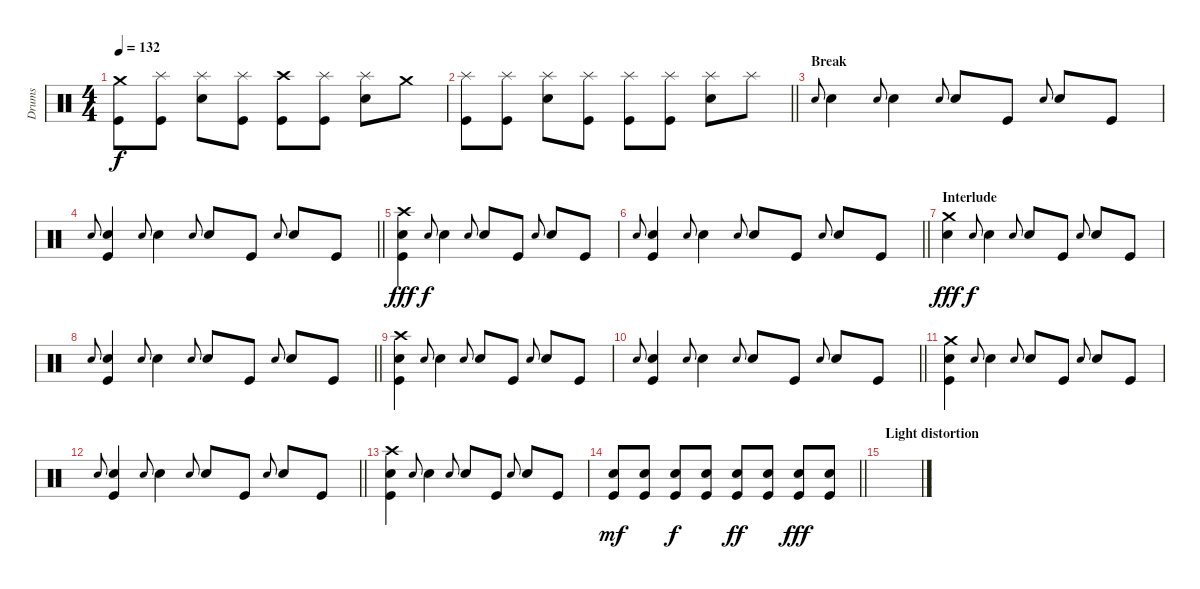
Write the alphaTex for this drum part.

\track ("Drums" "Drums") {instrument percussion}
\staff {score}
\articulation defaults
\ts (4 4)
\tempo 132
\clef neutral
\ks c
("Crash medium (hit)" "Kick (hit)").8{dy f} ("Splash (hit)" "Kick (hit)").8 ("Splash (hit)" "Snare (hit) 2").8 ("Splash (hit)" "Kick (hit)").8 ("Crash high (hit)" "Kick (hit)").8 ("Splash (hit)" "Kick (hit)").8 ("Splash (hit)" "Snare (hit) 2").8 "Crash medium (hit)".8 |
\barLineRight lightlight
("Splash (hit)" "Kick (hit)").8 ("Splash (hit)" "Kick (hit)").8 ("Splash (hit)" "Snare (hit) 2").8 ("Splash (hit)" "Kick (hit)").8 ("Splash (hit)" "Kick (hit)").8 ("Splash (hit)" "Kick (hit)").8 ("Splash (hit)" "Snare (hit) 2").8 "Splash (hit)".8 |
\section ("" "Break")
"Snare (hit) 2".8{gr onbeat} "Snare (hit) 2".4 "Snare (hit) 2".8{gr onbeat} "Snare (hit) 2".4 "Snare (hit) 2".8{gr onbeat} "Snare (hit) 2".8 "Kick (hit)".8 "Snare (hit) 2".8{gr onbeat} "Snare (hit) 2".8 "Kick (hit)".8 |
\barLineRight lightlight "Snare (hit) 2".8{gr onbeat}
("Snare (hit) 2" "Kick (hit)").4 "Snare (hit) 2".8{gr onbeat} "Snare (hit) 2".4 "Snare (hit) 2".8{gr onbeat} "Snare (hit) 2".8 "Kick (hit)".8 "Snare (hit) 2".8{gr onbeat} "Snare (hit) 2".8 "Kick (hit)".8 |
("Crash high (hit)" "Snare (hit) 2" "Kick (hit)").4{dy fff} "Snare (hit) 2".8{gr onbeat dy f} "Snare (hit) 2".4 "Snare (hit) 2".8{gr onbeat} "Snare (hit) 2".8 "Kick (hit)".8 "Snare (hit) 2".8{gr onbeat} "Snare (hit) 2".8 "Kick (hit)".8 |
\barLineRight lightlight "Snare (hit) 2".8{gr onbeat}
("Snare (hit) 2" "Kick (hit)").4 "Snare (hit) 2".8{gr onbeat} "Snare (hit) 2".4 "Snare (hit) 2".8{gr onbeat} "Snare (hit) 2".8 "Kick (hit)".8 "Snare (hit) 2".8{gr onbeat} "Snare (hit) 2".8 "Kick (hit)".8 |
\section ("" "Interlude")
("Crash medium (hit)" "Snare (hit) 2").4{dy fff} "Snare (hit) 2".8{gr onbeat dy f} "Snare (hit) 2".4 "Snare (hit) 2".8{gr onbeat} "Snare (hit) 2".8 "Kick (hit)".8 "Snare (hit) 2".8{gr onbeat} "Snare (hit) 2".8 "Kick (hit)".8 |
\barLineRight lightlight "Snare (hit) 2".8{gr onbeat}
("Snare (hit) 2" "Kick (hit)").4 "Snare (hit) 2".8{gr onbeat} "Snare (hit) 2".4 "Snare (hit) 2".8{gr onbeat} "Snare (hit) 2".8 "Kick (hit)".8 "Snare (hit) 2".8{gr onbeat} "Snare (hit) 2".8 "Kick (hit)".8 |
("Crash high (hit)" "Snare (hit) 2" "Kick (hit)").4 "Snare (hit) 2".8{gr onbeat} "Snare (hit) 2".4 "Snare (hit) 2".8{gr onbeat} "Snare (hit) 2".8 "Kick (hit)".8 "Snare (hit) 2".8{gr onbeat} "Snare (hit) 2".8 "Kick (hit)".8 |
\barLineRight lightlight "Snare (hit) 2".8{gr onbeat}
("Snare (hit) 2" "Kick (hit)").4 "Snare (hit) 2".8{gr onbeat} "Snare (hit) 2".4 "Snare (hit) 2".8{gr onbeat} "Snare (hit) 2".8 "Kick (hit)".8 "Snare (hit) 2".8{gr onbeat} "Snare (hit) 2".8 "Kick (hit)".8 |
("Crash medium (hit)" "Snare (hit) 2" "Kick (hit)").4 "Snare (hit) 2".8{gr onbeat} "Snare (hit) 2".4 "Snare (hit) 2".8{gr onbeat} "Snare (hit) 2".8 "Kick (hit)".8 "Snare (hit) 2".8{gr onbeat} "Snare (hit) 2".8 "Kick (hit)".8 |
\barLineRight lightlight "Snare (hit) 2".8{gr onbeat}
("Snare (hit) 2" "Kick (hit)").4 "Snare (hit) 2".8{gr onbeat} "Snare (hit) 2".4 "Snare (hit) 2".8{gr onbeat} "Snare (hit) 2".8 "Kick (hit)".8 "Snare (hit) 2".8{gr onbeat} "Snare (hit) 2".8 "Kick (hit)".8 |
("Crash high (hit)" "Snare (hit) 2" "Kick (hit)").4 "Snare (hit) 2".8{gr onbeat} "Snare (hit) 2".4 "Snare (hit) 2".8{gr onbeat} "Snare (hit) 2".8 "Kick (hit)".8 "Snare (hit) 2".8{gr onbeat} "Snare (hit) 2".8 "Kick (hit)".8 |
\barLineRight lightlight
("Snare (hit) 2" "Kick (hit)").8{dy mf} ("Snare (hit) 2" "Kick (hit)").8 ("Snare (hit) 2" "Kick (hit)").8{dy f} ("Snare (hit) 2" "Kick (hit)").8 ("Snare (hit) 2" "Kick (hit)").8{dy ff} ("Snare (hit) 2" "Kick (hit)").8 ("Snare (hit) 2" "Kick (hit)").8{dy fff} ("Snare (hit) 2" "Kick (hit)").8 |
\section ("" "Light distortion")
